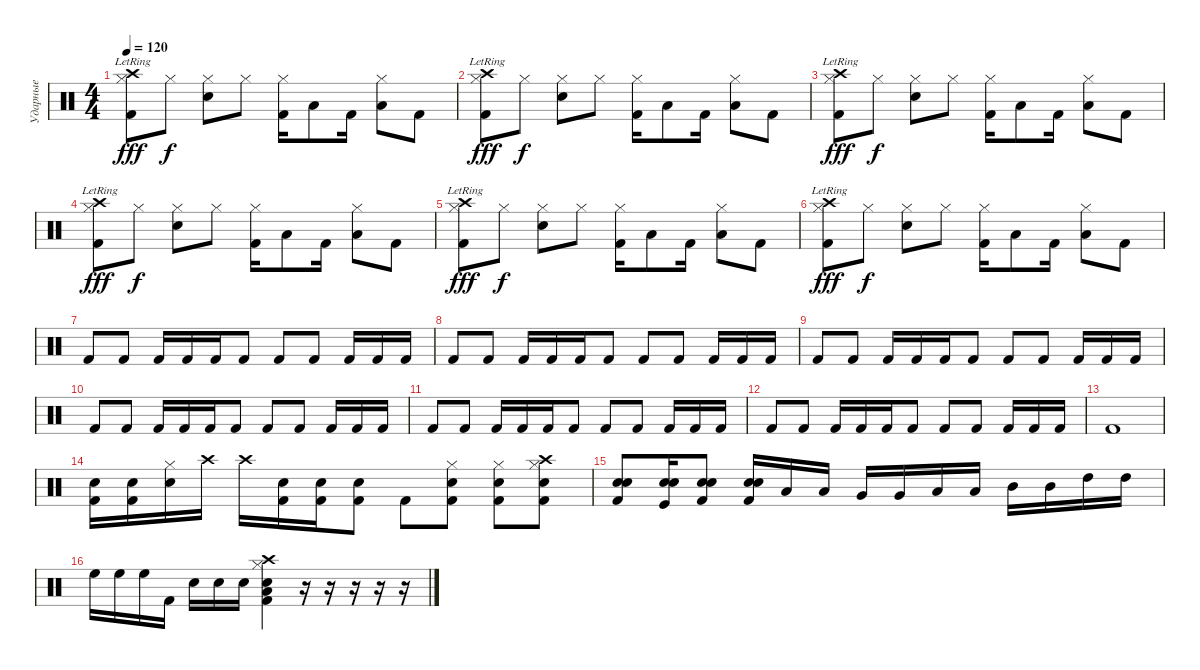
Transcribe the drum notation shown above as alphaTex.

\track ("Ударные" "Ударные") {instrument percussion}
\staff {score}
\articulation defaults
\ts (4 4)
\tempo 120
\clef neutral
\ks c
("Hi-Hat (closed)" "Kick (hit) 2" "Crash high (hit)"{lr}).8{dy fff} "Hi-Hat (closed)".8{dy f} ("Hi-Hat (closed)" "Snare (hit) 2").8 "Hi-Hat (closed)".8 ("Kick (hit) 2" "Hi-Hat (closed)").16 "Low Tom (hit)".8 "Kick (hit) 2".16 ("Low Tom (hit)" "Hi-Hat (closed)").8 "Kick (hit) 2".8 |
("Hi-Hat (closed)" "Kick (hit) 2" "Crash high (hit)"{lr}).8{dy fff} "Hi-Hat (closed)".8{dy f} ("Hi-Hat (closed)" "Snare (hit) 2").8 "Hi-Hat (closed)".8 ("Kick (hit) 2" "Hi-Hat (closed)").16 "Low Tom (hit)".8 "Kick (hit) 2".16 ("Low Tom (hit)" "Hi-Hat (closed)").8 "Kick (hit) 2".8 |
("Hi-Hat (closed)" "Kick (hit) 2" "Crash high (hit)"{lr}).8{dy fff} "Hi-Hat (closed)".8{dy f} ("Hi-Hat (closed)" "Snare (hit) 2").8 "Hi-Hat (closed)".8 ("Kick (hit) 2" "Hi-Hat (closed)").16 "Low Tom (hit)".8 "Kick (hit) 2".16 ("Low Tom (hit)" "Hi-Hat (closed)").8 "Kick (hit) 2".8 |
("Hi-Hat (closed)" "Kick (hit) 2" "Crash high (hit)"{lr}).8{dy fff} "Hi-Hat (closed)".8{dy f} ("Hi-Hat (closed)" "Snare (hit) 2").8 "Hi-Hat (closed)".8 ("Kick (hit) 2" "Hi-Hat (closed)").16 "Low Tom (hit)".8 "Kick (hit) 2".16 ("Low Tom (hit)" "Hi-Hat (closed)").8 "Kick (hit) 2".8 |
("Hi-Hat (closed)" "Kick (hit) 2" "Crash high (hit)"{lr}).8{dy fff} "Hi-Hat (closed)".8{dy f} ("Hi-Hat (closed)" "Snare (hit) 2").8 "Hi-Hat (closed)".8 ("Kick (hit) 2" "Hi-Hat (closed)").16 "Low Tom (hit)".8 "Kick (hit) 2".16 ("Low Tom (hit)" "Hi-Hat (closed)").8 "Kick (hit) 2".8 |
("Hi-Hat (closed)" "Kick (hit) 2" "Crash high (hit)"{lr}).8{dy fff} "Hi-Hat (closed)".8{dy f} ("Hi-Hat (closed)" "Snare (hit) 2").8 "Hi-Hat (closed)".8 ("Kick (hit) 2" "Hi-Hat (closed)").16 "Low Tom (hit)".8 "Kick (hit) 2".16 ("Low Tom (hit)" "Hi-Hat (closed)").8 "Kick (hit) 2".8 |
"Kick (hit) 2".8 "Kick (hit) 2".8 "Kick (hit) 2".16 "Kick (hit) 2".16 "Kick (hit) 2".16 "Kick (hit) 2".8 "Kick (hit) 2".8 "Kick (hit) 2".8 "Kick (hit) 2".16 "Kick (hit) 2".16 "Kick (hit) 2".16 |
"Kick (hit) 2".8 "Kick (hit) 2".8 "Kick (hit) 2".16 "Kick (hit) 2".16 "Kick (hit) 2".16 "Kick (hit) 2".8 "Kick (hit) 2".8 "Kick (hit) 2".8 "Kick (hit) 2".16 "Kick (hit) 2".16 "Kick (hit) 2".16 |
"Kick (hit) 2".8 "Kick (hit) 2".8 "Kick (hit) 2".16 "Kick (hit) 2".16 "Kick (hit) 2".16 "Kick (hit) 2".8 "Kick (hit) 2".8 "Kick (hit) 2".8 "Kick (hit) 2".16 "Kick (hit) 2".16 "Kick (hit) 2".16 |
"Kick (hit) 2".8 "Kick (hit) 2".8 "Kick (hit) 2".16 "Kick (hit) 2".16 "Kick (hit) 2".16 "Kick (hit) 2".8 "Kick (hit) 2".8 "Kick (hit) 2".8 "Kick (hit) 2".16 "Kick (hit) 2".16 "Kick (hit) 2".16 |
"Kick (hit) 2".8 "Kick (hit) 2".8 "Kick (hit) 2".16 "Kick (hit) 2".16 "Kick (hit) 2".16 "Kick (hit) 2".8 "Kick (hit) 2".8 "Kick (hit) 2".8 "Kick (hit) 2".16 "Kick (hit) 2".16 "Kick (hit) 2".16 |
"Kick (hit) 2".8 "Kick (hit) 2".8 "Kick (hit) 2".16 "Kick (hit) 2".16 "Kick (hit) 2".16 "Kick (hit) 2".8 "Kick (hit) 2".8 "Kick (hit) 2".8 "Kick (hit) 2".16 "Kick (hit) 2".16 "Kick (hit) 2".16 |
"Kick (hit) 2".1 |
("Snare (hit) 2" "Kick (hit) 2").16 ("Snare (hit) 2" "Kick (hit) 2").16 ("Snare (hit) 2" "Hi-Hat (closed)").16 "Crash high (hit)".16 "Crash high (hit)".16 ("Snare (hit) 2" "Kick (hit) 2").16 ("Snare (hit) 2" "Kick (hit) 2").16 ("Snare (hit) 2" "Kick (hit) 2").8 "Kick (hit) 2".8 ("Hi-Hat (closed)" "Snare (hit) 2" "Kick (hit) 2").8 ("Snare (hit) 2" "Kick (hit) 2" "Hi-Hat (closed)").8 ("Hi-Hat (closed)" "Snare (hit) 2" "Kick (hit) 2" "Crash high (hit)").8 |
("Snare (hit) 2" "Kick (hit) 2" "Electric Snare (hit)").8 ("Snare (hit) 2" "Kick (hit)" "Electric Snare (hit)").16 ("Snare (hit) 2" "Kick (hit) 2" "Electric Snare (hit)").8 ("Snare (hit) 2" "Kick (hit) 2" "Electric Snare (hit)").16 "Low Floor Tom (hit)".16 "Low Floor Tom (hit)".16 "Very Low Tom (hit)".16 "Very Low Tom (hit)".16 "Low Tom (hit)".16 "Low Tom (hit)".16 "Mid Tom (hit)".16 "Mid Tom (hit)".16 "High Tom (hit)".16 "High Tom (hit)".16 |
"High Floor Tom (hit)".16 "High Floor Tom (hit)".16 "High Floor Tom (hit)".16 "Kick (hit) 2".16 "Snare (hit) 2".16 "Electric Snare (hit)".16 "Snare (hit) 2".16 ("Kick (hit) 2" "Snare (hit) 2" "Low Floor Tom (hit)" "Hi-Hat (closed)" "Crash high (hit)").4 r.16 r.16 r.16 r.16 r.16
